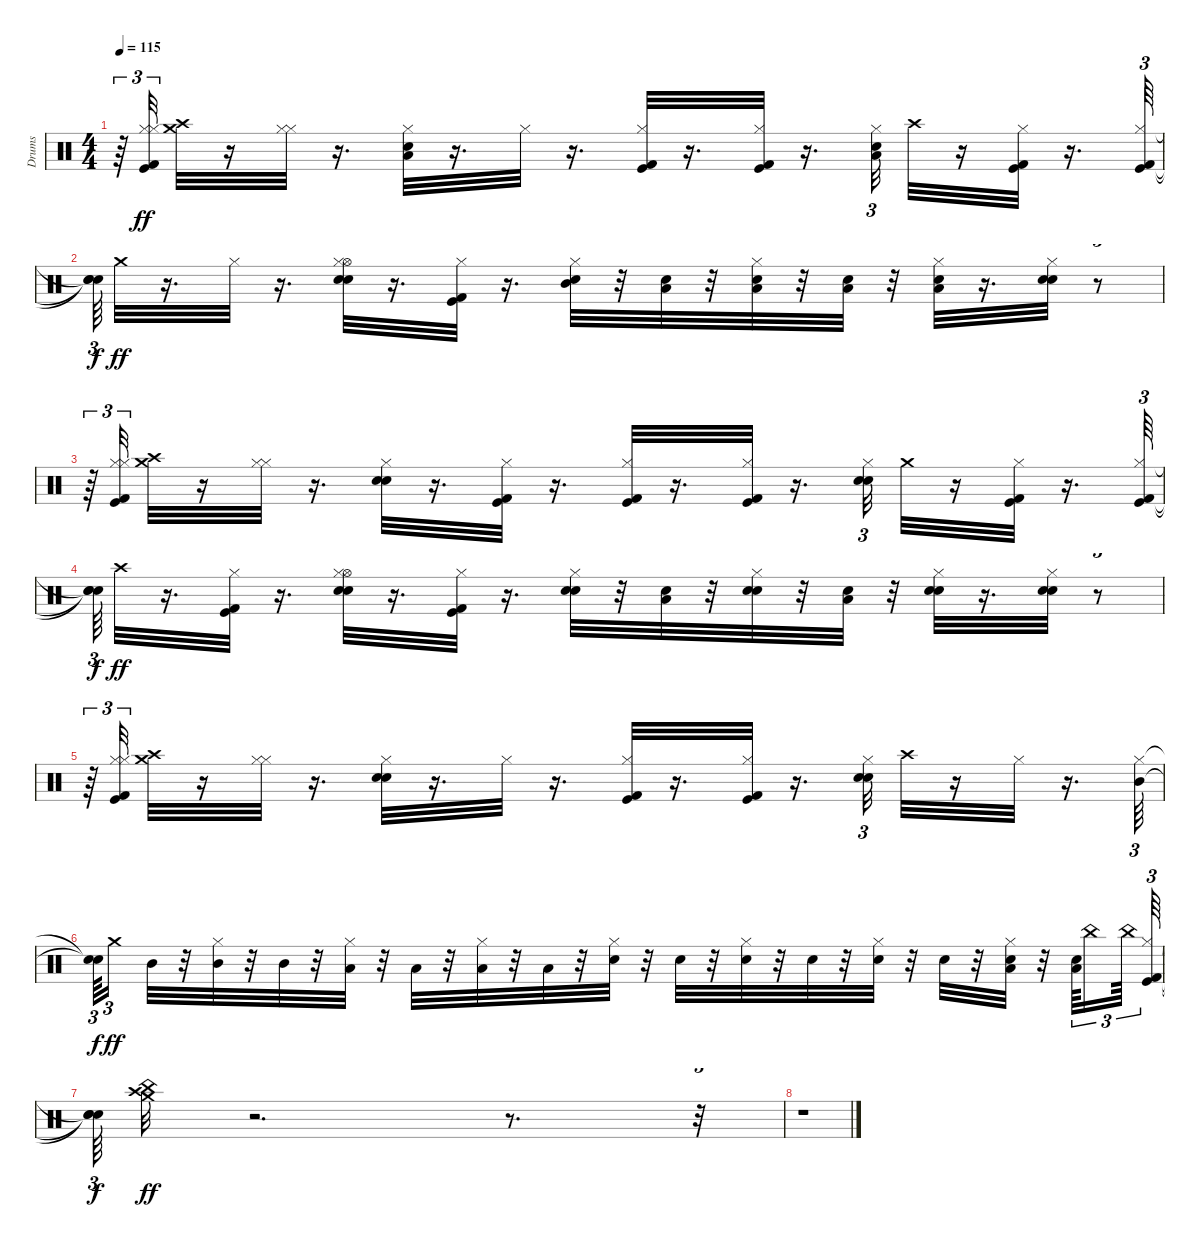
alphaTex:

\track ("Drums" "Drums") {instrument percussion}
\staff {score}
\articulation defaults
\ts (4 4)
\tempo 115
\clef neutral
\ks c
r.64{tu (3 2) dy ff} ("Kick (hit) 2" "Hi-Hat (closed)" "Kick (hit)" "Hi-Hat (closed)").32{tu (3 2)} ("Crash high (hit)" "Crash medium (hit)").32 r.16 ("Hi-Hat (closed)" "Hi-Hat (closed)").32 r.16{d} ("Hi-Hat (closed)" "Snare (hit) 2" "Low Floor Tom (hit)").32 r.16{d} "Hi-Hat (closed)".32 r.16{d} ("Hi-Hat (closed)" "Kick (hit)" "Kick (hit) 2").32 r.16{d} ("Kick (hit)" "Kick (hit) 2" "Hi-Hat (closed)").32 r.16{d} ("Hi-Hat (closed)" "Low Floor Tom (hit)" "Snare (hit) 2").32{tu (3 2)} "Crash high (hit)".32 r.16 ("Kick (hit)" "Kick (hit) 2" "Hi-Hat (closed)").32 r.16{d} ("Kick (hit) 2" "Kick (hit)" "Hi-Hat (closed)").64{tu (3 2)} |
("Snare (hit)"{t} "Snare (hit)"{t} "Snare (hit)"{t}).64{tu (3 2) dy f} "Crash medium (hit)".32{dy ff} r.16{d} "Hi-Hat (closed)".32 r.16{d} ("Hi-Hat (open)" "Electric Snare (hit)" "Snare (hit) 2" "Hi-Hat (closed)").32 r.16{d} ("Kick (hit) 2" "Hi-Hat (closed)" "Kick (hit)").32 r.16{d} ("Hi-Hat (closed)" "Snare (hit) 2" "Mid Tom (hit)").32 r.32 ("Low Tom (hit)" "Snare (hit) 2").32 r.32 ("Hi-Hat (closed)" "Snare (hit) 2" "Low Floor Tom (hit)").32 r.32 ("Low Floor Tom (hit)" "Snare (hit) 2").32 r.32 ("Low Tom (hit)" "Snare (hit) 2" "Hi-Hat (closed)").32 r.16{d} ("Hi-Hat (closed)" "Electric Snare (hit)" "Snare (hit) 2").32 r.8{tu (3 2)} |
r.64{tu (3 2)} ("Kick (hit)" "Kick (hit) 2" "Hi-Hat (closed)" "Hi-Hat (closed)").32{tu (3 2)} ("Crash medium (hit)" "Crash high (hit)").32 r.16 ("Hi-Hat (closed)" "Hi-Hat (closed)").32 r.16{d} ("Hi-Hat (closed)" "Electric Snare (hit)" "Snare (hit) 2").32 r.16{d} ("Kick (hit)" "Kick (hit) 2" "Hi-Hat (closed)").32 r.16{d} ("Kick (hit) 2" "Hi-Hat (closed)" "Kick (hit)").32 r.16{d} ("Kick (hit) 2" "Kick (hit)" "Hi-Hat (closed)").32 r.16{d} ("Electric Snare (hit)" "Snare (hit) 2" "Hi-Hat (closed)").32{tu (3 2)} "Crash medium (hit)".32 r.16 ("Kick (hit)" "Kick (hit) 2" "Hi-Hat (closed)").32 r.16{d} ("Kick (hit) 2" "Kick (hit)" "Hi-Hat (closed)").64{tu (3 2)} |
("Snare (hit)"{t} "Snare (hit)"{t} "Snare (hit)"{t}).64{tu (3 2) dy f} "Crash high (hit)".32{dy ff} r.16{d} ("Hi-Hat (closed)" "Kick (hit) 2" "Kick (hit)").32 r.16{d} ("Hi-Hat (open)" "Electric Snare (hit)" "Hi-Hat (closed)" "Snare (hit) 2").32 r.16{d} ("Kick (hit)" "Hi-Hat (closed)" "Kick (hit) 2").32 r.16{d} ("Snare (hit) 2" "Hi-Hat (closed)" "Electric Snare (hit)").32 r.32 ("Low Floor Tom (hit)" "Snare (hit) 2").32 r.32 ("Electric Snare (hit)" "Hi-Hat (closed)" "Snare (hit) 2").32 r.32 ("Snare (hit) 2" "Low Floor Tom (hit)").32 r.32 ("Snare (hit) 2" "Hi-Hat (closed)" "Electric Snare (hit)").32 r.16{d} ("Electric Snare (hit)" "Snare (hit) 2" "Hi-Hat (closed)").32 r.8{tu (3 2)} |
r.64{tu (3 2)} ("Hi-Hat (closed)" "Kick (hit) 2" "Kick (hit)" "Hi-Hat (closed)").32{tu (3 2)} ("Crash medium (hit)" "Crash high (hit)").32 r.16 ("Hi-Hat (closed)" "Hi-Hat (closed)").32 r.16{d} ("Hi-Hat (closed)" "Electric Snare (hit)" "Snare (hit) 2").32 r.16{d} "Hi-Hat (closed)".32 r.16{d} ("Hi-Hat (closed)" "Kick (hit)" "Kick (hit) 2").32 r.16{d} ("Hi-Hat (closed)" "Kick (hit)" "Kick (hit) 2").32 r.16{d} ("Electric Snare (hit)" "Snare (hit) 2" "Hi-Hat (closed)").32{tu (3 2)} "Crash high (hit)".32 r.16 "Hi-Hat (closed)".32 r.16{d} ("Hi-Hat (closed)" "Mid Tom (hit)").64{tu (3 2)} |
("Snare (hit)"{t} "Snare (hit)"{t}).64{tu (3 2) dy f} "Crash medium (hit)".16{tu (3 2) dy ff} "Mid Tom (hit)".32 r.32 ("Hi-Hat (closed)" "Mid Tom (hit)").32 r.32 "Mid Tom (hit)".32 r.32 ("Hi-Hat (closed)" "Low Tom (hit)").32 r.32 "Low Tom (hit)".32 r.32 ("Low Tom (hit)" "Hi-Hat (closed)").32 r.32 "Low Tom (hit)".32 r.32 ("Electric Snare (hit)" "Hi-Hat (closed)").32 r.32 "Electric Snare (hit)".32 r.32 ("Hi-Hat (closed)" "Electric Snare (hit)").32 r.32 "Electric Snare (hit)".32 r.32 ("Hi-Hat (closed)" "Snare (hit) 2").32 r.32 "Snare (hit) 2".32 r.32 ("Low Floor Tom (hit)" "Snare (hit) 2" "Hi-Hat (closed)").32 r.32 ("Snare (hit) 2" "Low Floor Tom (hit)").64{tu (3 2)} "China (hit)".16{tu (3 2)} "China (hit)".64{tu (3 2)} ("Kick (hit) 2" "Kick (hit)" "Hi-Hat (closed)").64{tu (3 2)} |
("Snare (hit)"{t} "Snare (hit)"{t} "Snare (hit)"{t}).64{tu (3 2) dy f} ("Crash high (hit)" "Crash medium (hit)" "China (hit)").32{dy ff} r.2{d} r.8{d} r.32{tu (3 2)} |
r.1
